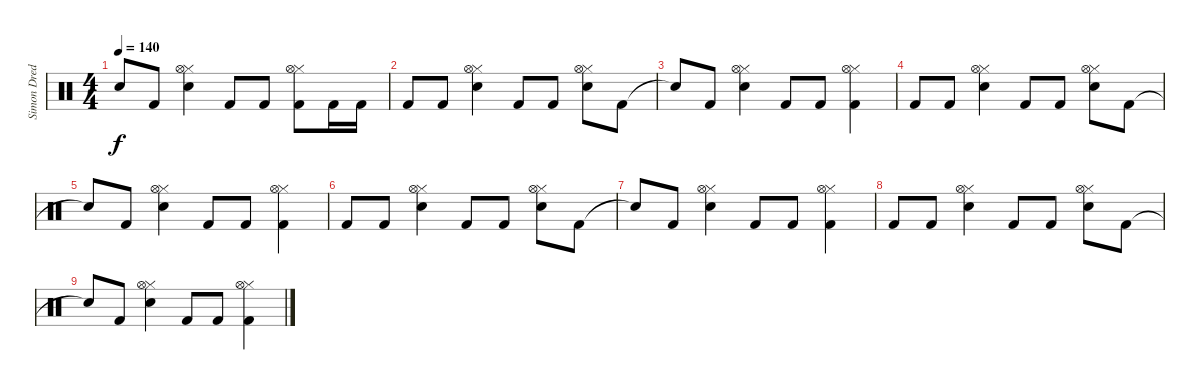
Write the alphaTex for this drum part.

\track ("Simon Dredo" "Simon Dred") {instrument percussion}
\staff {score}
\articulation defaults
\ts (4 4)
\tempo 140
\clef neutral
\ks c "Snare (hit)"{t}.8{dy f} "Kick (hit) 2".8
("Hi-Hat (closed)" "Hi-Hat (open)" "Snare (hit) 2").4 "Kick (hit) 2".8 "Kick (hit) 2".8 ("Hi-Hat (closed)" "Hi-Hat (open)" "Kick (hit) 2").8 "Kick (hit) 2".16 "Kick (hit) 2".16 |
"Kick (hit) 2".8 "Kick (hit) 2".8 ("Hi-Hat (closed)" "Hi-Hat (open)" "Snare (hit) 2").4 "Kick (hit) 2".8 "Kick (hit) 2".8 ("Hi-Hat (closed)" "Hi-Hat (open)" "Snare (hit) 2").8 "Kick (hit) 2".8 |
"Snare (hit)"{t}.8 "Kick (hit) 2".8 ("Hi-Hat (closed)" "Hi-Hat (open)" "Snare (hit) 2").4 "Kick (hit) 2".8 "Kick (hit) 2".8 ("Hi-Hat (closed)" "Hi-Hat (open)" "Kick (hit) 2").4 |
"Kick (hit) 2".8 "Kick (hit) 2".8 ("Hi-Hat (closed)" "Hi-Hat (open)" "Snare (hit) 2").4 "Kick (hit) 2".8 "Kick (hit) 2".8 ("Hi-Hat (closed)" "Hi-Hat (open)" "Snare (hit) 2").8 "Kick (hit) 2".8 |
"Snare (hit)"{t}.8 "Kick (hit) 2".8 ("Hi-Hat (closed)" "Hi-Hat (open)" "Snare (hit) 2").4 "Kick (hit) 2".8 "Kick (hit) 2".8 ("Hi-Hat (closed)" "Hi-Hat (open)" "Kick (hit) 2").4 |
"Kick (hit) 2".8 "Kick (hit) 2".8 ("Hi-Hat (closed)" "Hi-Hat (open)" "Snare (hit) 2").4 "Kick (hit) 2".8 "Kick (hit) 2".8 ("Hi-Hat (closed)" "Hi-Hat (open)" "Snare (hit) 2").8 "Kick (hit) 2".8 |
"Snare (hit)"{t}.8 "Kick (hit) 2".8 ("Hi-Hat (closed)" "Hi-Hat (open)" "Snare (hit) 2").4 "Kick (hit) 2".8 "Kick (hit) 2".8 ("Hi-Hat (closed)" "Hi-Hat (open)" "Kick (hit) 2").4 |
"Kick (hit) 2".8 "Kick (hit) 2".8 ("Hi-Hat (closed)" "Hi-Hat (open)" "Snare (hit) 2").4 "Kick (hit) 2".8 "Kick (hit) 2".8 ("Hi-Hat (closed)" "Hi-Hat (open)" "Snare (hit) 2").8 "Kick (hit) 2".8 |
"Snare (hit)"{t}.8 "Kick (hit) 2".8 ("Hi-Hat (closed)" "Hi-Hat (open)" "Snare (hit) 2").4 "Kick (hit) 2".8 "Kick (hit) 2".8 ("Hi-Hat (closed)" "Hi-Hat (open)" "Kick (hit) 2").4
